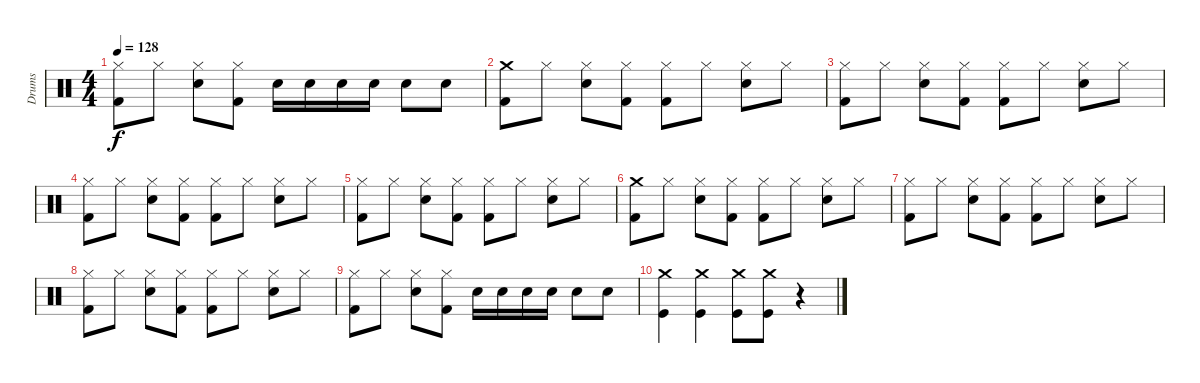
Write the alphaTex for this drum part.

\track ("Drums" "Drums") {instrument percussion}
\staff {score}
\articulation defaults
\ts (4 4)
\tempo 128
\clef neutral
\ks c
("Kick (hit) 2" "Hi-Hat (closed)").8{dy f} "Hi-Hat (closed)".8 ("Electric Snare (hit)" "Hi-Hat (closed)").8 ("Kick (hit) 2" "Hi-Hat (closed)").8 "Electric Snare (hit)".16 "Electric Snare (hit)".16 "Electric Snare (hit)".16 "Electric Snare (hit)".16 "Electric Snare (hit)".8 "Electric Snare (hit)".8 |
("Kick (hit) 2" "Crash medium (hit)").8 "Hi-Hat (closed)".8 ("Hi-Hat (closed)" "Electric Snare (hit)").8 ("Kick (hit) 2" "Hi-Hat (closed)").8 ("Hi-Hat (closed)" "Kick (hit) 2").8 "Hi-Hat (closed)".8 ("Hi-Hat (closed)" "Electric Snare (hit)").8 "Hi-Hat (closed)".8 |
("Hi-Hat (closed)" "Kick (hit) 2").8 "Hi-Hat (closed)".8 ("Hi-Hat (closed)" "Electric Snare (hit)").8 ("Kick (hit) 2" "Hi-Hat (closed)").8 ("Hi-Hat (closed)" "Kick (hit) 2").8 "Hi-Hat (closed)".8 ("Hi-Hat (closed)" "Electric Snare (hit)").8 "Hi-Hat (closed)".8 |
("Hi-Hat (closed)" "Kick (hit) 2").8 "Hi-Hat (closed)".8 ("Hi-Hat (closed)" "Electric Snare (hit)").8 ("Kick (hit) 2" "Hi-Hat (closed)").8 ("Hi-Hat (closed)" "Kick (hit) 2").8 "Hi-Hat (closed)".8 ("Hi-Hat (closed)" "Electric Snare (hit)").8 "Hi-Hat (closed)".8 |
("Hi-Hat (closed)" "Kick (hit) 2").8 "Hi-Hat (closed)".8 ("Hi-Hat (closed)" "Electric Snare (hit)").8 ("Kick (hit) 2" "Hi-Hat (closed)").8 ("Hi-Hat (closed)" "Kick (hit) 2").8 "Hi-Hat (closed)".8 ("Hi-Hat (closed)" "Electric Snare (hit)").8 "Hi-Hat (closed)".8 |
("Kick (hit) 2" "Crash medium (hit)").8 "Hi-Hat (closed)".8 ("Hi-Hat (closed)" "Electric Snare (hit)").8 ("Kick (hit) 2" "Hi-Hat (closed)").8 ("Hi-Hat (closed)" "Kick (hit) 2").8 "Hi-Hat (closed)".8 ("Hi-Hat (closed)" "Electric Snare (hit)").8 "Hi-Hat (closed)".8 |
("Hi-Hat (closed)" "Kick (hit) 2").8 "Hi-Hat (closed)".8 ("Hi-Hat (closed)" "Electric Snare (hit)").8 ("Kick (hit) 2" "Hi-Hat (closed)").8 ("Hi-Hat (closed)" "Kick (hit) 2").8 "Hi-Hat (closed)".8 ("Hi-Hat (closed)" "Electric Snare (hit)").8 "Hi-Hat (closed)".8 |
("Hi-Hat (closed)" "Kick (hit) 2").8 "Hi-Hat (closed)".8 ("Hi-Hat (closed)" "Electric Snare (hit)").8 ("Kick (hit) 2" "Hi-Hat (closed)").8 ("Hi-Hat (closed)" "Kick (hit) 2").8 "Hi-Hat (closed)".8 ("Hi-Hat (closed)" "Electric Snare (hit)").8 "Hi-Hat (closed)".8 |
("Kick (hit) 2" "Hi-Hat (closed)").8 "Hi-Hat (closed)".8 ("Electric Snare (hit)" "Hi-Hat (closed)").8 ("Kick (hit) 2" "Hi-Hat (closed)").8 "Electric Snare (hit)".16 "Electric Snare (hit)".16 "Electric Snare (hit)".16 "Electric Snare (hit)".16 "Electric Snare (hit)".8 "Electric Snare (hit)".8 |
("Kick (hit)" "Crash medium (hit)").4 ("Crash medium (hit)" "Kick (hit)").4 ("Crash medium (hit)" "Kick (hit)").8 ("Crash medium (hit)" "Kick (hit)").8 r.4
